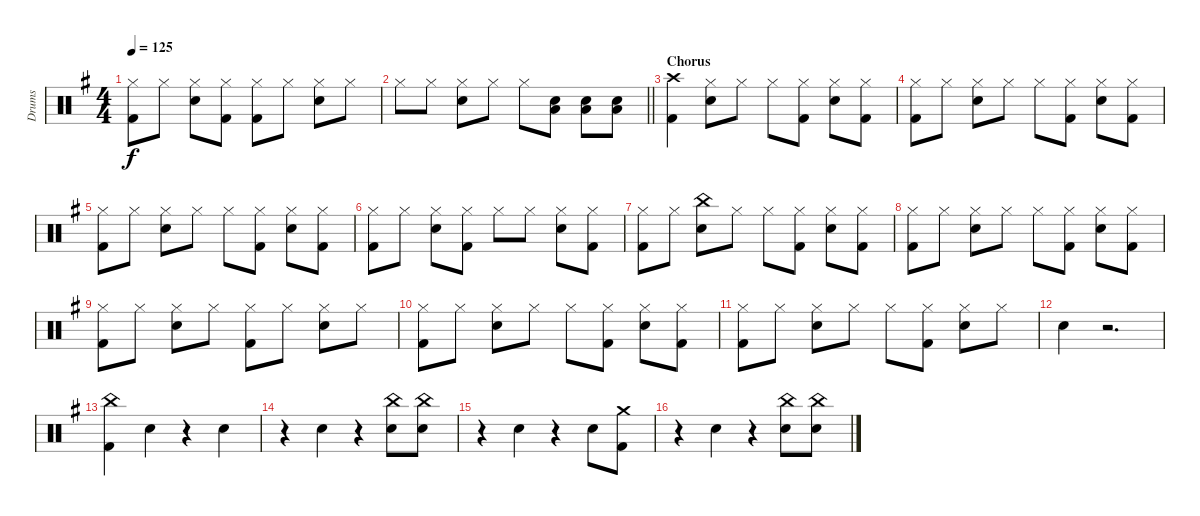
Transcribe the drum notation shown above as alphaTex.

\track ("Drums" "Drums") {instrument percussion}
\staff {score}
\articulation defaults
\ts (4 4)
\tempo 125
\clef neutral
\ks eminor
("Hi-Hat (closed)" "Kick (hit) 2").8{dy f} "Hi-Hat (closed)".8 ("Hi-Hat (closed)" "Electric Snare (hit)").8 ("Hi-Hat (closed)" "Kick (hit) 2").8 ("Hi-Hat (closed)" "Kick (hit) 2").8 "Hi-Hat (closed)".8 ("Hi-Hat (closed)" "Electric Snare (hit)").8 "Hi-Hat (closed)".8 |
\barLineRight lightlight "Hi-Hat (closed)".8 "Hi-Hat (closed)".8
("Hi-Hat (closed)" "Electric Snare (hit)").8 "Hi-Hat (closed)".8 "Hi-Hat (closed)".8 ("Electric Snare (hit)" "Low Tom (hit)").8 ("Electric Snare (hit)" "Low Tom (hit)").8 ("Electric Snare (hit)" "Low Tom (hit)").8 |
\section ("" "Chorus")
("Crash high (hit)" "Kick (hit) 2").4 ("Hi-Hat (closed)" "Electric Snare (hit)").8 "Hi-Hat (closed)".8 "Hi-Hat (closed)".8 ("Hi-Hat (closed)" "Kick (hit) 2").8 ("Hi-Hat (closed)" "Electric Snare (hit)").8 ("Hi-Hat (closed)" "Kick (hit) 2").8 |
("Hi-Hat (closed)" "Kick (hit) 2").8 "Hi-Hat (closed)".8 ("Hi-Hat (closed)" "Electric Snare (hit)").8 "Hi-Hat (closed)".8 "Hi-Hat (closed)".8 ("Hi-Hat (closed)" "Kick (hit) 2").8 ("Hi-Hat (closed)" "Electric Snare (hit)").8 ("Hi-Hat (closed)" "Kick (hit) 2").8 |
("Hi-Hat (closed)" "Kick (hit) 2").8 "Hi-Hat (closed)".8 ("Hi-Hat (closed)" "Electric Snare (hit)").8 "Hi-Hat (closed)".8 "Hi-Hat (closed)".8 ("Hi-Hat (closed)" "Kick (hit) 2").8 ("Hi-Hat (closed)" "Electric Snare (hit)").8 ("Hi-Hat (closed)" "Kick (hit) 2").8 |
("Hi-Hat (closed)" "Kick (hit) 2").8 "Hi-Hat (closed)".8 ("Hi-Hat (closed)" "Electric Snare (hit)").8 ("Hi-Hat (closed)" "Kick (hit) 2").8 "Hi-Hat (closed)".8 "Hi-Hat (closed)".8 ("Hi-Hat (closed)" "Electric Snare (hit)").8 ("Hi-Hat (closed)" "Kick (hit) 2").8 |
("Hi-Hat (closed)" "Kick (hit) 2").8 "Hi-Hat (closed)".8 ("China (hit)" "Electric Snare (hit)").8 "Hi-Hat (closed)".8 "Hi-Hat (closed)".8 ("Hi-Hat (closed)" "Kick (hit) 2").8 ("Hi-Hat (closed)" "Electric Snare (hit)").8 ("Hi-Hat (closed)" "Kick (hit) 2").8 |
("Hi-Hat (closed)" "Kick (hit) 2").8 "Hi-Hat (closed)".8 ("Hi-Hat (closed)" "Electric Snare (hit)").8 "Hi-Hat (closed)".8 "Hi-Hat (closed)".8 ("Hi-Hat (closed)" "Kick (hit) 2").8 ("Hi-Hat (closed)" "Electric Snare (hit)").8 ("Hi-Hat (closed)" "Kick (hit) 2").8 |
("Hi-Hat (closed)" "Kick (hit) 2").8 "Hi-Hat (closed)".8 ("Hi-Hat (closed)" "Electric Snare (hit)").8 "Hi-Hat (closed)".8 ("Hi-Hat (closed)" "Kick (hit) 2").8 "Hi-Hat (closed)".8 ("Hi-Hat (closed)" "Electric Snare (hit)").8 "Hi-Hat (closed)".8 |
("Hi-Hat (closed)" "Kick (hit) 2").8 "Hi-Hat (closed)".8 ("Hi-Hat (closed)" "Electric Snare (hit)").8 "Hi-Hat (closed)".8 "Hi-Hat (closed)".8 ("Hi-Hat (closed)" "Kick (hit) 2").8 ("Hi-Hat (closed)" "Electric Snare (hit)").8 ("Hi-Hat (closed)" "Kick (hit) 2").8 |
("Hi-Hat (closed)" "Kick (hit) 2").8 "Hi-Hat (closed)".8 ("Hi-Hat (closed)" "Electric Snare (hit)").8 "Hi-Hat (closed)".8 "Hi-Hat (closed)".8 ("Hi-Hat (closed)" "Kick (hit) 2").8 ("Hi-Hat (closed)" "Electric Snare (hit)").8 "Hi-Hat (closed)".8 |
"Electric Snare (hit)".4 r.2{d} |
("China (hit)" "Kick (hit) 2").4 "Electric Snare (hit)".4 r.4 "Electric Snare (hit)".4 |
r.4 "Electric Snare (hit)".4 r.4 ("China (hit)" "Electric Snare (hit)").8 ("China (hit)" "Electric Snare (hit)").8 |
r.4 "Electric Snare (hit)".4 r.4 "Electric Snare (hit)".8 ("Crash medium (hit)" "Kick (hit) 2").8 |
r.4 "Electric Snare (hit)".4 r.4 ("China (hit)" "Electric Snare (hit)").8 ("China (hit)" "Electric Snare (hit)").8
